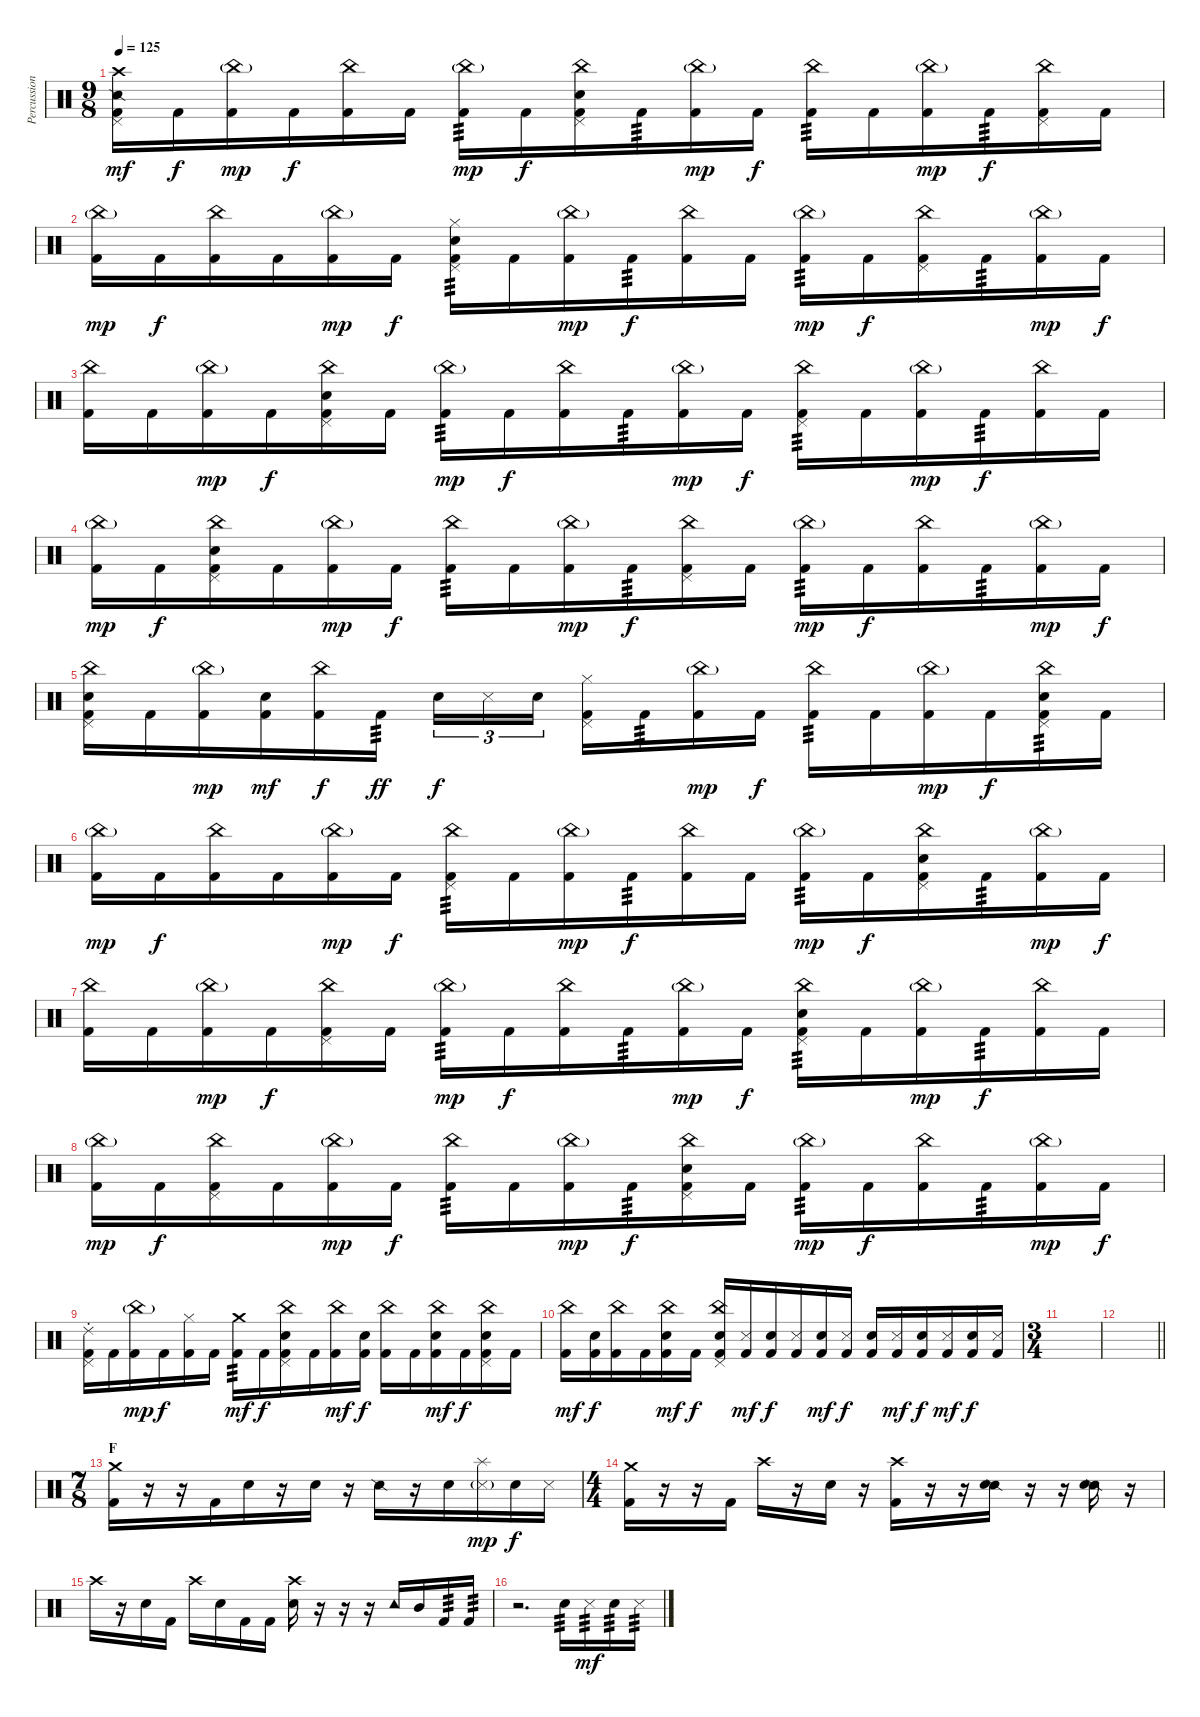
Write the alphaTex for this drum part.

\track ("Percussion" "Percussion") {instrument percussion}
\staff {score}
\articulation defaults
\ts (9 8)
\tempo 125
\clef neutral
\ks c
("Snare (side stick) 2" "Crash high (hit)" "Pedal Hi-Hat (hit)" "Kick (hit) 2").16{dy mf} "Kick (hit) 2".16{dy f} ("China (hit)"{g} "Kick (hit) 2").16{dy mp} "Kick (hit) 2".16{dy f} ("China (hit)" "Kick (hit) 2").16 "Kick (hit) 2".16 ("China (hit)"{g} "Kick (hit) 2").16{tp 3 dy mp} "Kick (hit) 2".16{dy f} ("China (hit)" "Pedal Hi-Hat (hit)" "Snare (hit) 2" "Kick (hit) 2").16 "Kick (hit) 2".16{tp 3} ("China (hit)"{g} "Kick (hit) 2").16{dy mp} "Kick (hit) 2".16{dy f} ("China (hit)" "Kick (hit) 2").16{tp 3} "Kick (hit) 2".16 ("China (hit)"{g} "Kick (hit) 2").16{dy mp} "Kick (hit) 2".16{tp 3 dy f} ("China (hit)" "Pedal Hi-Hat (hit)" "Kick (hit) 2").16 "Kick (hit) 2".16 |
("China (hit)"{g} "Kick (hit) 2").16{dy mp} "Kick (hit) 2".16{dy f} ("China (hit)" "Kick (hit) 2").16 "Kick (hit) 2".16 ("China (hit)"{g} "Kick (hit) 2").16{dy mp} "Kick (hit) 2".16{dy f} ("Hi-Hat (closed)" "Pedal Hi-Hat (hit)" "Snare (hit) 2" "Kick (hit) 2").16{tp 3} "Kick (hit) 2".16 ("China (hit)"{g} "Kick (hit) 2").16{dy mp} "Kick (hit) 2".16{tp 3 dy f} ("China (hit)" "Kick (hit) 2").16 "Kick (hit) 2".16 ("China (hit)"{g} "Kick (hit) 2").16{tp 3 dy mp} "Kick (hit) 2".16{dy f} ("China (hit)" "Pedal Hi-Hat (hit)" "Kick (hit) 2").16 "Kick (hit) 2".16{tp 3} ("China (hit)"{g} "Kick (hit) 2").16{dy mp} "Kick (hit) 2".16{dy f} |
("China (hit)" "Kick (hit) 2").16 "Kick (hit) 2".16 ("China (hit)"{g} "Kick (hit) 2").16{dy mp} "Kick (hit) 2".16{dy f} ("China (hit)" "Pedal Hi-Hat (hit)" "Snare (hit) 2" "Kick (hit) 2").16 "Kick (hit) 2".16 ("China (hit)"{g} "Kick (hit) 2").16{tp 3 dy mp} "Kick (hit) 2".16{dy f} ("China (hit)" "Kick (hit) 2").16 "Kick (hit) 2".16{tp 3} ("China (hit)"{g} "Kick (hit) 2").16{dy mp} "Kick (hit) 2".16{dy f} ("China (hit)" "Pedal Hi-Hat (hit)" "Kick (hit) 2").16{tp 3} "Kick (hit) 2".16 ("China (hit)"{g} "Kick (hit) 2").16{dy mp} "Kick (hit) 2".16{tp 3 dy f} ("China (hit)" "Kick (hit) 2").16 "Kick (hit) 2".16 |
("China (hit)"{g} "Kick (hit) 2").16{dy mp} "Kick (hit) 2".16{dy f} ("China (hit)" "Pedal Hi-Hat (hit)" "Snare (hit) 2" "Kick (hit) 2").16 "Kick (hit) 2".16 ("China (hit)"{g} "Kick (hit) 2").16{dy mp} "Kick (hit) 2".16{dy f} ("China (hit)" "Kick (hit) 2").16{tp 3} "Kick (hit) 2".16 ("China (hit)"{g} "Kick (hit) 2").16{dy mp} "Kick (hit) 2".16{tp 3 dy f} ("China (hit)" "Pedal Hi-Hat (hit)" "Kick (hit) 2").16 "Kick (hit) 2".16 ("China (hit)"{g} "Kick (hit) 2").16{tp 3 dy mp} "Kick (hit) 2".16{dy f} ("China (hit)" "Kick (hit) 2").16 "Kick (hit) 2".16{tp 3} ("China (hit)"{g} "Kick (hit) 2").16{dy mp} "Kick (hit) 2".16{dy f} |
("China (hit)" "Pedal Hi-Hat (hit)" "Snare (hit) 2" "Kick (hit) 2").16 "Kick (hit) 2".16 ("China (hit)"{g} "Kick (hit) 2").16{dy mp} ("Snare (hit) 2" "Kick (hit) 2").16{dy mf} ("China (hit)" "Kick (hit) 2").16{dy f} "Kick (hit) 2".16{tp 3 dy ff} "Snare (hit) 2".16{tu (3 2) dy f} "Metronome (hit)".16{tu (3 2)} "Snare (hit) 2".16{tu (3 2) beam splitsecondary} ("Hi-Hat (closed)" "Pedal Hi-Hat (hit)" "Kick (hit) 2").16 "Kick (hit) 2".16{tp 3} ("China (hit)"{g} "Kick (hit) 2").16{dy mp} "Kick (hit) 2".16{dy f} ("China (hit)" "Kick (hit) 2").16{tp 3} "Kick (hit) 2".16 ("China (hit)"{g} "Kick (hit) 2").16{dy mp} "Kick (hit) 2".16{dy f} ("China (hit)" "Pedal Hi-Hat (hit)" "Snare (hit) 2" "Kick (hit) 2").16{tp 3} "Kick (hit) 2".16 |
("China (hit)"{g} "Kick (hit) 2").16{dy mp} "Kick (hit) 2".16{dy f} ("China (hit)" "Kick (hit) 2").16 "Kick (hit) 2".16 ("China (hit)"{g} "Kick (hit) 2").16{dy mp} "Kick (hit) 2".16{dy f} ("China (hit)" "Pedal Hi-Hat (hit)" "Kick (hit) 2").16{tp 3} "Kick (hit) 2".16 ("China (hit)"{g} "Kick (hit) 2").16{dy mp} "Kick (hit) 2".16{tp 3 dy f} ("China (hit)" "Kick (hit) 2").16 "Kick (hit) 2".16 ("China (hit)"{g} "Kick (hit) 2").16{tp 3 dy mp} "Kick (hit) 2".16{dy f} ("China (hit)" "Pedal Hi-Hat (hit)" "Snare (hit) 2" "Kick (hit) 2").16 "Kick (hit) 2".16{tp 3} ("China (hit)"{g} "Kick (hit) 2").16{dy mp} "Kick (hit) 2".16{dy f} |
("China (hit)" "Kick (hit) 2").16 "Kick (hit) 2".16 ("China (hit)"{g} "Kick (hit) 2").16{dy mp} "Kick (hit) 2".16{dy f} ("China (hit)" "Pedal Hi-Hat (hit)" "Kick (hit) 2").16 "Kick (hit) 2".16 ("China (hit)"{g} "Kick (hit) 2").16{tp 3 dy mp} "Kick (hit) 2".16{dy f} ("China (hit)" "Kick (hit) 2").16 "Kick (hit) 2".16{tp 3} ("China (hit)"{g} "Kick (hit) 2").16{dy mp} "Kick (hit) 2".16{dy f} ("China (hit)" "Pedal Hi-Hat (hit)" "Snare (hit) 2" "Kick (hit) 2").16{tp 3} "Kick (hit) 2".16 ("China (hit)"{g} "Kick (hit) 2").16{dy mp} "Kick (hit) 2".16{tp 3 dy f} ("China (hit)" "Kick (hit) 2").16 "Kick (hit) 2".16 |
("China (hit)"{g} "Kick (hit) 2").16{dy mp} "Kick (hit) 2".16{dy f} ("China (hit)" "Pedal Hi-Hat (hit)" "Kick (hit) 2").16 "Kick (hit) 2".16 ("China (hit)"{g} "Kick (hit) 2").16{dy mp} "Kick (hit) 2".16{dy f} ("China (hit)" "Kick (hit) 2").16{tp 3} "Kick (hit) 2".16 ("China (hit)"{g} "Kick (hit) 2").16{dy mp} "Kick (hit) 2".16{tp 3 dy f} ("China (hit)" "Pedal Hi-Hat (hit)" "Snare (hit) 2" "Kick (hit) 2").16 "Kick (hit) 2".16 ("China (hit)"{g} "Kick (hit) 2").16{tp 3 dy mp} "Kick (hit) 2".16{dy f} ("China (hit)" "Kick (hit) 2").16 "Kick (hit) 2".16{tp 3} ("China (hit)"{g} "Kick (hit) 2").16{dy mp} "Kick (hit) 2".16{dy f} |
("Ride (choke) 2" "Pedal Hi-Hat (hit)" "Kick (hit) 2").16 "Kick (hit) 2".16 ("China (hit)"{g} "Kick (hit) 2").16{dy mp} "Kick (hit) 2".16{dy f} ("Hi-Hat (closed)" "Kick (hit) 2").16 "Kick (hit) 2".16 ("Crash medium (hit)" "Kick (hit) 2").16{tp 3 dy mf} "Kick (hit) 2".16{dy f} ("China (hit)" "Pedal Hi-Hat (hit)" "Snare (hit) 2" "Kick (hit) 2").16 "Kick (hit) 2".16 ("China (hit)" "Kick (hit) 2").16{dy mf} ("Snare (hit) 2" "Kick (hit) 2").16{dy f} ("China (hit)" "Kick (hit) 2").16 "Kick (hit) 2".16 ("China (hit)" "Snare (hit) 2" "Kick (hit) 2").16{dy mf} "Kick (hit) 2".16{dy f} ("China (hit)" "Pedal Hi-Hat (hit)" "Snare (hit) 2" "Kick (hit) 2").16 "Kick (hit) 2".16 |
("China (hit)" "Kick (hit) 2").16{dy mf} ("Snare (hit) 2" "Kick (hit) 2").16{dy f} ("China (hit)" "Kick (hit) 2").16 "Kick (hit) 2".16 ("China (hit)" "Snare (hit) 2" "Kick (hit) 2").16{dy mf} "Kick (hit) 2".16{dy f} ("China (hit)" "Pedal Hi-Hat (hit)" "Snare (hit) 2" "Kick (hit) 2").16 ("Metronome (hit)" "Kick (hit) 2").16{dy mf} ("Snare (hit) 2" "Kick (hit) 2").16{dy f} ("Metronome (hit)" "Kick (hit) 2").16 ("Snare (hit) 2" "Kick (hit) 2").16{dy mf} ("Metronome (hit)" "Kick (hit) 2").16{dy f} ("Snare (hit) 2" "Kick (hit) 2").16 ("Metronome (hit)" "Kick (hit) 2").16{dy mf} ("Snare (hit) 2" "Kick (hit) 2").16{dy f} ("Metronome (hit)" "Kick (hit) 2").16{dy mf} ("Snare (hit) 2" "Kick (hit) 2").16{dy f} ("Metronome (hit)" "Kick (hit) 2").16 |
\ts (3 4)
|
\barLineRight lightlight
|
\ts (7 8)
\section ("" "F")
("Crash medium (hit)" "Kick (hit) 2").16 r.16 r.16 "Kick (hit) 2".16 "Snare (hit)".16 r.16 "Snare (hit) 2".16 r.16 "Snare (side stick) 2".16 r.16 "Snare (hit) 2".16 ("Splash (hit)" "Metronome (hit)"{g}).16{dy mp} "Snare (hit) 2".16{dy f} "Metronome (hit)".16 |
\ts (4 4)
("Crash medium (hit)" "Kick (hit) 2").16 r.16 r.16 "Kick (hit) 2".16 "Crash high (hit)".16 r.16 "Snare (hit) 2".16 r.16 ("Crash high (hit)" "Kick (hit) 2").16 r.16 r.16 ("Snare (side stick) 2" "Snare (hit) 2").16 r.16 r.16 ("Snare (side stick) 2" "Snare (hit) 2").16 r.16 |
"Crash high (hit)".16 r.16 "Snare (hit) 2".16 "Kick (hit) 2".16 "Crash high (hit)".16 "Snare (hit) 2".16 "Kick (hit) 2".16 "Kick (hit) 2".16 ("Crash high (hit)" "Snare (hit) 2").16 r.16 r.16 r.16 "Tambourine (hit)".16 "Mid Tom (hit)".16 "Kick (hit) 2".16{tp 3} "Kick (hit) 2".16{tp 3} |
r.2{d} "Snare (hit) 2".16{tp 3} "Metronome (hit)".16{tp 3 dy mf} "Snare (hit) 2".16{tp 3} "Metronome (hit)".16{tp 3}
